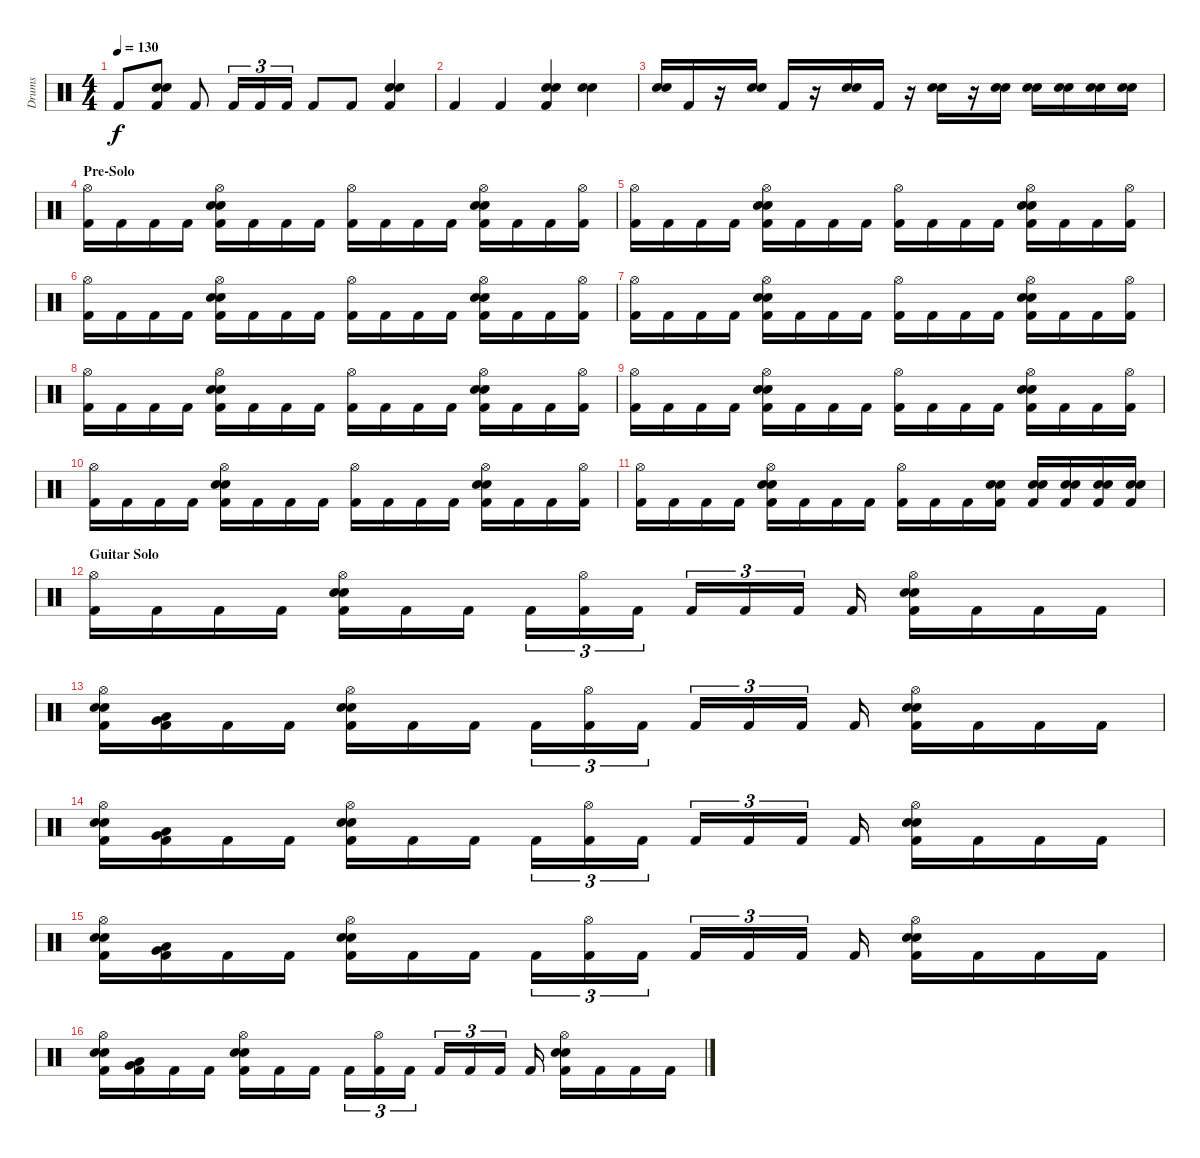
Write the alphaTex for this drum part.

\track ("Drums" "Drums") {instrument percussion}
\staff {score}
\articulation defaults
\ts (4 4)
\tempo 130
\clef neutral
\ks c "Kick (hit) 2".8{dy f}
("Snare (hit) 2" "Electric Snare (hit)" "Kick (hit) 2").8 "Kick (hit) 2".8 "Kick (hit) 2".16{tu (3 2)} "Kick (hit) 2".16{tu (3 2)} "Kick (hit) 2".16{tu (3 2)} "Kick (hit) 2".8 "Kick (hit) 2".8 ("Snare (hit) 2" "Electric Snare (hit)" "Kick (hit) 2").4 |
"Kick (hit) 2".4 "Kick (hit) 2".4 ("Snare (hit) 2" "Electric Snare (hit)" "Kick (hit) 2").4 ("Snare (hit) 2" "Electric Snare (hit)").4 |
("Snare (hit) 2" "Electric Snare (hit)").16 "Kick (hit) 2".16 r.16 ("Snare (hit) 2" "Electric Snare (hit)").16 "Kick (hit) 2".16 r.16 ("Snare (hit) 2" "Electric Snare (hit)").16 "Kick (hit) 2".16 r.16 ("Snare (hit) 2" "Electric Snare (hit)").16 r.16 ("Snare (hit) 2" "Electric Snare (hit)").16 ("Snare (hit) 2" "Electric Snare (hit)").16 ("Snare (hit) 2" "Electric Snare (hit)").16 ("Snare (hit) 2" "Electric Snare (hit)").16 ("Snare (hit) 2" "Electric Snare (hit)").16 |
\section ("" "Pre-Solo")
("Hi-Hat (open)" "Kick (hit) 2").16 "Kick (hit) 2".16 "Kick (hit) 2".16 "Kick (hit) 2".16 ("Hi-Hat (open)" "Snare (hit) 2" "Electric Snare (hit)" "Kick (hit) 2").16 "Kick (hit) 2".16 "Kick (hit) 2".16 "Kick (hit) 2".16 ("Hi-Hat (open)" "Kick (hit) 2").16 "Kick (hit) 2".16 "Kick (hit) 2".16 "Kick (hit) 2".16 ("Hi-Hat (open)" "Snare (hit) 2" "Electric Snare (hit)" "Kick (hit) 2").16 "Kick (hit) 2".16 "Kick (hit) 2".16 ("Hi-Hat (open)" "Kick (hit) 2").16 |
("Hi-Hat (open)" "Kick (hit) 2").16 "Kick (hit) 2".16 "Kick (hit) 2".16 "Kick (hit) 2".16 ("Hi-Hat (open)" "Snare (hit) 2" "Electric Snare (hit)" "Kick (hit) 2").16 "Kick (hit) 2".16 "Kick (hit) 2".16 "Kick (hit) 2".16 ("Hi-Hat (open)" "Kick (hit) 2").16 "Kick (hit) 2".16 "Kick (hit) 2".16 "Kick (hit) 2".16 ("Hi-Hat (open)" "Snare (hit) 2" "Electric Snare (hit)" "Kick (hit) 2").16 "Kick (hit) 2".16 "Kick (hit) 2".16 ("Hi-Hat (open)" "Kick (hit) 2").16 |
("Hi-Hat (open)" "Kick (hit) 2").16 "Kick (hit) 2".16 "Kick (hit) 2".16 "Kick (hit) 2".16 ("Hi-Hat (open)" "Snare (hit) 2" "Electric Snare (hit)" "Kick (hit) 2").16 "Kick (hit) 2".16 "Kick (hit) 2".16 "Kick (hit) 2".16 ("Hi-Hat (open)" "Kick (hit) 2").16 "Kick (hit) 2".16 "Kick (hit) 2".16 "Kick (hit) 2".16 ("Hi-Hat (open)" "Snare (hit) 2" "Electric Snare (hit)" "Kick (hit) 2").16 "Kick (hit) 2".16 "Kick (hit) 2".16 ("Hi-Hat (open)" "Kick (hit) 2").16 |
("Hi-Hat (open)" "Kick (hit) 2").16 "Kick (hit) 2".16 "Kick (hit) 2".16 "Kick (hit) 2".16 ("Hi-Hat (open)" "Snare (hit) 2" "Electric Snare (hit)" "Kick (hit) 2").16 "Kick (hit) 2".16 "Kick (hit) 2".16 "Kick (hit) 2".16 ("Hi-Hat (open)" "Kick (hit) 2").16 "Kick (hit) 2".16 "Kick (hit) 2".16 "Kick (hit) 2".16 ("Hi-Hat (open)" "Snare (hit) 2" "Electric Snare (hit)" "Kick (hit) 2").16 "Kick (hit) 2".16 "Kick (hit) 2".16 ("Hi-Hat (open)" "Kick (hit) 2").16 |
("Hi-Hat (open)" "Kick (hit) 2").16 "Kick (hit) 2".16 "Kick (hit) 2".16 "Kick (hit) 2".16 ("Hi-Hat (open)" "Snare (hit) 2" "Electric Snare (hit)" "Kick (hit) 2").16 "Kick (hit) 2".16 "Kick (hit) 2".16 "Kick (hit) 2".16 ("Hi-Hat (open)" "Kick (hit) 2").16 "Kick (hit) 2".16 "Kick (hit) 2".16 "Kick (hit) 2".16 ("Hi-Hat (open)" "Snare (hit) 2" "Electric Snare (hit)" "Kick (hit) 2").16 "Kick (hit) 2".16 "Kick (hit) 2".16 ("Hi-Hat (open)" "Kick (hit) 2").16 |
("Hi-Hat (open)" "Kick (hit) 2").16 "Kick (hit) 2".16 "Kick (hit) 2".16 "Kick (hit) 2".16 ("Hi-Hat (open)" "Snare (hit) 2" "Electric Snare (hit)" "Kick (hit) 2").16 "Kick (hit) 2".16 "Kick (hit) 2".16 "Kick (hit) 2".16 ("Hi-Hat (open)" "Kick (hit) 2").16 "Kick (hit) 2".16 "Kick (hit) 2".16 "Kick (hit) 2".16 ("Hi-Hat (open)" "Snare (hit) 2" "Electric Snare (hit)" "Kick (hit) 2").16 "Kick (hit) 2".16 "Kick (hit) 2".16 ("Hi-Hat (open)" "Kick (hit) 2").16 |
("Hi-Hat (open)" "Kick (hit) 2").16 "Kick (hit) 2".16 "Kick (hit) 2".16 "Kick (hit) 2".16 ("Hi-Hat (open)" "Snare (hit) 2" "Electric Snare (hit)" "Kick (hit) 2").16 "Kick (hit) 2".16 "Kick (hit) 2".16 "Kick (hit) 2".16 ("Hi-Hat (open)" "Kick (hit) 2").16 "Kick (hit) 2".16 "Kick (hit) 2".16 "Kick (hit) 2".16 ("Hi-Hat (open)" "Snare (hit) 2" "Electric Snare (hit)" "Kick (hit) 2").16 "Kick (hit) 2".16 "Kick (hit) 2".16 ("Hi-Hat (open)" "Kick (hit) 2").16 |
("Hi-Hat (open)" "Kick (hit) 2").16 "Kick (hit) 2".16 "Kick (hit) 2".16 "Kick (hit) 2".16 ("Hi-Hat (open)" "Snare (hit) 2" "Electric Snare (hit)" "Kick (hit) 2").16 "Kick (hit) 2".16 "Kick (hit) 2".16 "Kick (hit) 2".16 ("Hi-Hat (open)" "Kick (hit) 2").16 "Kick (hit) 2".16 "Kick (hit) 2".16 ("Snare (hit) 2" "Electric Snare (hit)" "Kick (hit) 2").16 ("Snare (hit) 2" "Electric Snare (hit)" "Kick (hit) 2").16 ("Snare (hit) 2" "Electric Snare (hit)" "Kick (hit) 2").16 ("Snare (hit) 2" "Electric Snare (hit)" "Kick (hit) 2").16 ("Snare (hit) 2" "Electric Snare (hit)" "Kick (hit) 2").16 |
\section ("" "Guitar Solo")
("Hi-Hat (open)" "Kick (hit) 2").16 "Kick (hit) 2".16 "Kick (hit) 2".16 "Kick (hit) 2".16 ("Hi-Hat (open)" "Snare (hit) 2" "Electric Snare (hit)" "Kick (hit) 2").16 "Kick (hit) 2".16 "Kick (hit) 2".16 "Kick (hit) 2".16{tu (3 2)} ("Hi-Hat (open)" "Kick (hit) 2").16{tu (3 2)} "Kick (hit) 2".16{tu (3 2)} "Kick (hit) 2".16{tu (3 2)} "Kick (hit) 2".16{tu (3 2)} "Kick (hit) 2".16{tu (3 2)} "Kick (hit) 2".16 ("Hi-Hat (open)" "Snare (hit) 2" "Electric Snare (hit)" "Kick (hit) 2").16 "Kick (hit) 2".16 "Kick (hit) 2".16 "Kick (hit) 2".16 |
("Hi-Hat (open)" "Snare (hit) 2" "Electric Snare (hit)" "Kick (hit) 2").16 ("Very Low Tom (hit)" "Low Tom (hit)" "Kick (hit) 2").16 "Kick (hit) 2".16 "Kick (hit) 2".16 ("Hi-Hat (open)" "Snare (hit) 2" "Electric Snare (hit)" "Kick (hit) 2").16 "Kick (hit) 2".16 "Kick (hit) 2".16 "Kick (hit) 2".16{tu (3 2)} ("Hi-Hat (open)" "Kick (hit) 2").16{tu (3 2)} "Kick (hit) 2".16{tu (3 2)} "Kick (hit) 2".16{tu (3 2)} "Kick (hit) 2".16{tu (3 2)} "Kick (hit) 2".16{tu (3 2)} "Kick (hit) 2".16 ("Hi-Hat (open)" "Snare (hit) 2" "Electric Snare (hit)" "Kick (hit) 2").16 "Kick (hit) 2".16 "Kick (hit) 2".16 "Kick (hit) 2".16 |
("Hi-Hat (open)" "Snare (hit) 2" "Electric Snare (hit)" "Kick (hit) 2").16 ("Very Low Tom (hit)" "Low Tom (hit)" "Kick (hit) 2").16 "Kick (hit) 2".16 "Kick (hit) 2".16 ("Hi-Hat (open)" "Snare (hit) 2" "Electric Snare (hit)" "Kick (hit) 2").16 "Kick (hit) 2".16 "Kick (hit) 2".16 "Kick (hit) 2".16{tu (3 2)} ("Hi-Hat (open)" "Kick (hit) 2").16{tu (3 2)} "Kick (hit) 2".16{tu (3 2)} "Kick (hit) 2".16{tu (3 2)} "Kick (hit) 2".16{tu (3 2)} "Kick (hit) 2".16{tu (3 2)} "Kick (hit) 2".16 ("Hi-Hat (open)" "Snare (hit) 2" "Electric Snare (hit)" "Kick (hit) 2").16 "Kick (hit) 2".16 "Kick (hit) 2".16 "Kick (hit) 2".16 |
("Hi-Hat (open)" "Snare (hit) 2" "Electric Snare (hit)" "Kick (hit) 2").16 ("Very Low Tom (hit)" "Low Tom (hit)" "Kick (hit) 2").16 "Kick (hit) 2".16 "Kick (hit) 2".16 ("Hi-Hat (open)" "Snare (hit) 2" "Electric Snare (hit)" "Kick (hit) 2").16 "Kick (hit) 2".16 "Kick (hit) 2".16 "Kick (hit) 2".16{tu (3 2)} ("Hi-Hat (open)" "Kick (hit) 2").16{tu (3 2)} "Kick (hit) 2".16{tu (3 2)} "Kick (hit) 2".16{tu (3 2)} "Kick (hit) 2".16{tu (3 2)} "Kick (hit) 2".16{tu (3 2)} "Kick (hit) 2".16 ("Hi-Hat (open)" "Snare (hit) 2" "Electric Snare (hit)" "Kick (hit) 2").16 "Kick (hit) 2".16 "Kick (hit) 2".16 "Kick (hit) 2".16 |
("Hi-Hat (open)" "Snare (hit) 2" "Electric Snare (hit)" "Kick (hit) 2").16 ("Very Low Tom (hit)" "Low Tom (hit)" "Kick (hit) 2").16 "Kick (hit) 2".16 "Kick (hit) 2".16 ("Hi-Hat (open)" "Snare (hit) 2" "Electric Snare (hit)" "Kick (hit) 2").16 "Kick (hit) 2".16 "Kick (hit) 2".16 "Kick (hit) 2".16{tu (3 2)} ("Hi-Hat (open)" "Kick (hit) 2").16{tu (3 2)} "Kick (hit) 2".16{tu (3 2)} "Kick (hit) 2".16{tu (3 2)} "Kick (hit) 2".16{tu (3 2)} "Kick (hit) 2".16{tu (3 2)} "Kick (hit) 2".16 ("Hi-Hat (open)" "Snare (hit) 2" "Electric Snare (hit)" "Kick (hit) 2").16 "Kick (hit) 2".16 "Kick (hit) 2".16 "Kick (hit) 2".16
